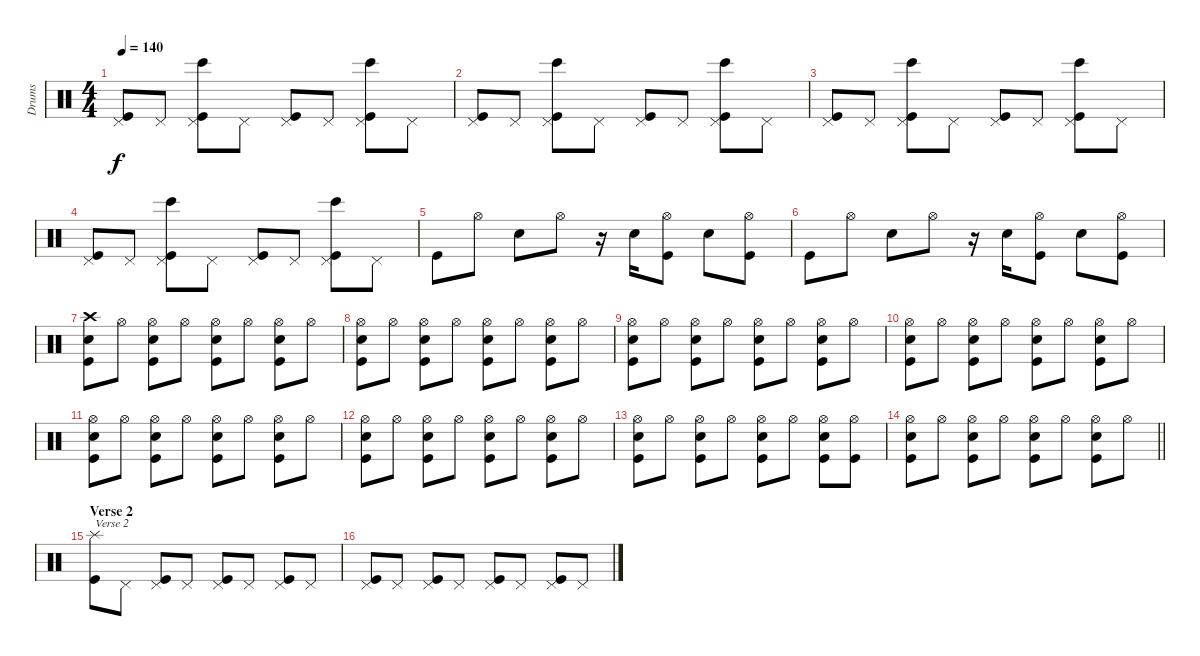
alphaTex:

\track ("Drums" "Drums") {instrument percussion}
\staff {score}
\articulation defaults
\ts (4 4)
\tempo 140
\clef neutral
\ks c
("Pedal Hi-Hat (hit)" "Kick (hit)").8{dy f} "Pedal Hi-Hat (hit)".8 ("Pedal Hi-Hat (hit)" "Bongo High (hit)" "Kick (hit)").8 "Pedal Hi-Hat (hit)".8 ("Pedal Hi-Hat (hit)" "Kick (hit)").8 "Pedal Hi-Hat (hit)".8 ("Pedal Hi-Hat (hit)" "Bongo High (hit)" "Kick (hit)").8 "Pedal Hi-Hat (hit)".8 |
("Pedal Hi-Hat (hit)" "Kick (hit)").8 "Pedal Hi-Hat (hit)".8 ("Pedal Hi-Hat (hit)" "Bongo High (hit)" "Kick (hit)").8 "Pedal Hi-Hat (hit)".8 ("Pedal Hi-Hat (hit)" "Kick (hit)").8 "Pedal Hi-Hat (hit)".8 ("Pedal Hi-Hat (hit)" "Bongo High (hit)" "Kick (hit)").8 "Pedal Hi-Hat (hit)".8 |
("Pedal Hi-Hat (hit)" "Kick (hit)").8 "Pedal Hi-Hat (hit)".8 ("Pedal Hi-Hat (hit)" "Bongo High (hit)" "Kick (hit)").8 "Pedal Hi-Hat (hit)".8 ("Pedal Hi-Hat (hit)" "Kick (hit)").8 "Pedal Hi-Hat (hit)".8 ("Pedal Hi-Hat (hit)" "Bongo High (hit)" "Kick (hit)").8 "Pedal Hi-Hat (hit)".8 |
("Pedal Hi-Hat (hit)" "Kick (hit)").8 "Pedal Hi-Hat (hit)".8 ("Pedal Hi-Hat (hit)" "Bongo High (hit)" "Kick (hit)").8 "Pedal Hi-Hat (hit)".8 ("Pedal Hi-Hat (hit)" "Kick (hit)").8 "Pedal Hi-Hat (hit)".8 ("Pedal Hi-Hat (hit)" "Bongo High (hit)" "Kick (hit)").8 "Pedal Hi-Hat (hit)".8 |
"Kick (hit)".8 "Hi-Hat (open)".8 "Snare (hit) 2".8 "Hi-Hat (open)".8 r.16 "Snare (hit) 2".16 ("Hi-Hat (open)" "Kick (hit)").8 "Snare (hit) 2".8 ("Hi-Hat (open)" "Kick (hit)").8 |
"Kick (hit)".8 "Hi-Hat (open)".8 "Snare (hit) 2".8 "Hi-Hat (open)".8 r.16 "Snare (hit) 2".16 ("Hi-Hat (open)" "Kick (hit)").8 "Snare (hit) 2".8 ("Hi-Hat (open)" "Kick (hit)").8 |
("Crash high (hit)" "Snare (hit) 2" "Kick (hit)").8 "Hi-Hat (open)".8 ("Hi-Hat (open)" "Snare (hit) 2" "Kick (hit)").8 "Hi-Hat (open)".8 ("Hi-Hat (open)" "Snare (hit) 2" "Kick (hit)").8 "Hi-Hat (open)".8 ("Hi-Hat (open)" "Snare (hit) 2" "Kick (hit)").8 "Hi-Hat (open)".8 |
("Hi-Hat (open)" "Snare (hit) 2" "Kick (hit)").8 "Hi-Hat (open)".8 ("Hi-Hat (open)" "Snare (hit) 2" "Kick (hit)").8 "Hi-Hat (open)".8 ("Hi-Hat (open)" "Snare (hit) 2" "Kick (hit)").8 "Hi-Hat (open)".8 ("Hi-Hat (open)" "Snare (hit) 2" "Kick (hit)").8 "Hi-Hat (open)".8 |
("Hi-Hat (open)" "Snare (hit) 2" "Kick (hit)").8 "Hi-Hat (open)".8 ("Hi-Hat (open)" "Snare (hit) 2" "Kick (hit)").8 "Hi-Hat (open)".8 ("Hi-Hat (open)" "Snare (hit) 2" "Kick (hit)").8 "Hi-Hat (open)".8 ("Hi-Hat (open)" "Snare (hit) 2" "Kick (hit)").8 "Hi-Hat (open)".8 |
("Hi-Hat (open)" "Snare (hit) 2" "Kick (hit)").8 "Hi-Hat (open)".8 ("Hi-Hat (open)" "Snare (hit) 2" "Kick (hit)").8 "Hi-Hat (open)".8 ("Hi-Hat (open)" "Snare (hit) 2" "Kick (hit)").8 "Hi-Hat (open)".8 ("Hi-Hat (open)" "Snare (hit) 2" "Kick (hit)").8 "Hi-Hat (open)".8 |
("Hi-Hat (open)" "Snare (hit) 2" "Kick (hit)").8 "Hi-Hat (open)".8 ("Hi-Hat (open)" "Snare (hit) 2" "Kick (hit)").8 "Hi-Hat (open)".8 ("Hi-Hat (open)" "Snare (hit) 2" "Kick (hit)").8 "Hi-Hat (open)".8 ("Hi-Hat (open)" "Snare (hit) 2" "Kick (hit)").8 "Hi-Hat (open)".8 |
("Hi-Hat (open)" "Snare (hit) 2" "Kick (hit)").8 "Hi-Hat (open)".8 ("Hi-Hat (open)" "Snare (hit) 2" "Kick (hit)").8 "Hi-Hat (open)".8 ("Hi-Hat (open)" "Snare (hit) 2" "Kick (hit)").8 "Hi-Hat (open)".8 ("Hi-Hat (open)" "Snare (hit) 2" "Kick (hit)").8 "Hi-Hat (open)".8 |
("Hi-Hat (open)" "Snare (hit) 2" "Kick (hit)").8 "Hi-Hat (open)".8 ("Hi-Hat (open)" "Snare (hit) 2" "Kick (hit)").8 "Hi-Hat (open)".8 ("Hi-Hat (open)" "Snare (hit) 2" "Kick (hit)").8 "Hi-Hat (open)".8 ("Hi-Hat (open)" "Snare (hit) 2" "Kick (hit)").8 ("Hi-Hat (open)" "Kick (hit)").8 |
\barLineRight lightlight
("Hi-Hat (open)" "Snare (hit) 2" "Kick (hit)").8 "Hi-Hat (open)".8 ("Hi-Hat (open)" "Snare (hit) 2" "Kick (hit)").8 "Hi-Hat (open)".8 ("Hi-Hat (open)" "Snare (hit) 2" "Kick (hit)").8 "Hi-Hat (open)".8 ("Hi-Hat (open)" "Snare (hit) 2" "Kick (hit)").8 "Hi-Hat (open)".8 |
\section ("" "Verse 2")
("Splash (hit)" "Kick (hit)").8{txt "Verse 2"} "Pedal Hi-Hat (hit)".8 ("Pedal Hi-Hat (hit)" "Kick (hit)").8 "Pedal Hi-Hat (hit)".8 ("Pedal Hi-Hat (hit)" "Kick (hit)").8 "Pedal Hi-Hat (hit)".8 ("Pedal Hi-Hat (hit)" "Kick (hit)").8 "Pedal Hi-Hat (hit)".8 |
("Pedal Hi-Hat (hit)" "Kick (hit)").8 "Pedal Hi-Hat (hit)".8 ("Pedal Hi-Hat (hit)" "Kick (hit)").8 "Pedal Hi-Hat (hit)".8 ("Pedal Hi-Hat (hit)" "Kick (hit)").8 "Pedal Hi-Hat (hit)".8 ("Pedal Hi-Hat (hit)" "Kick (hit)").8 "Pedal Hi-Hat (hit)".8
